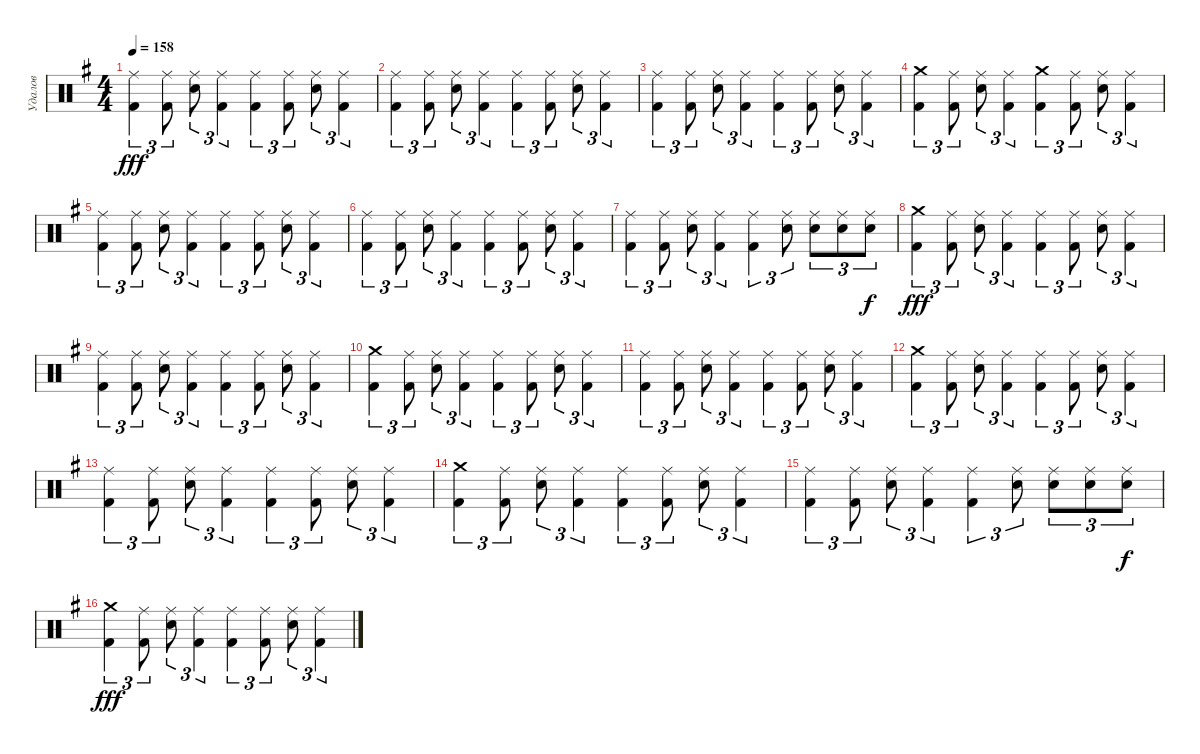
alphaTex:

\track ("Удалов" "Удалов") {instrument percussion}
\staff {score}
\articulation defaults
\ts (4 4)
\tempo 158
\clef neutral
\ks g
("Kick (hit) 2" "Ride (middle)").4{tu (3 2) dy fff} ("Kick (hit) 2" "Ride (middle)").8{tu (3 2)} ("Electric Snare (hit)" "Ride (middle)").8{tu (3 2)} ("Kick (hit) 2" "Ride (middle)").4{tu (3 2)} ("Kick (hit) 2" "Ride (middle)").4{tu (3 2)} ("Kick (hit) 2" "Ride (middle)").8{tu (3 2)} ("Electric Snare (hit)" "Ride (middle)").8{tu (3 2)} ("Kick (hit) 2" "Ride (middle)").4{tu (3 2)} |
("Kick (hit) 2" "Ride (middle)").4{tu (3 2)} ("Kick (hit) 2" "Ride (middle)").8{tu (3 2)} ("Electric Snare (hit)" "Ride (middle)").8{tu (3 2)} ("Kick (hit) 2" "Ride (middle)").4{tu (3 2)} ("Kick (hit) 2" "Ride (middle)").4{tu (3 2)} ("Kick (hit) 2" "Ride (middle)").8{tu (3 2)} ("Electric Snare (hit)" "Ride (middle)").8{tu (3 2)} ("Kick (hit) 2" "Ride (middle)").4{tu (3 2)} |
("Kick (hit) 2" "Ride (middle)").4{tu (3 2)} ("Kick (hit) 2" "Ride (middle)").8{tu (3 2)} ("Electric Snare (hit)" "Ride (middle)").8{tu (3 2)} ("Kick (hit) 2" "Ride (middle)").4{tu (3 2)} ("Kick (hit) 2" "Ride (middle)").4{tu (3 2)} ("Kick (hit) 2" "Ride (middle)").8{tu (3 2)} ("Electric Snare (hit)" "Ride (middle)").8{tu (3 2)} ("Kick (hit) 2" "Ride (middle)").4{tu (3 2)} |
("Kick (hit) 2" "Crash medium (hit)").4{tu (3 2)} ("Kick (hit) 2" "Ride (middle)").8{tu (3 2)} ("Electric Snare (hit)" "Ride (middle)").8{tu (3 2)} ("Kick (hit) 2" "Ride (middle)").4{tu (3 2)} ("Kick (hit) 2" "Crash medium (hit)").4{tu (3 2)} ("Kick (hit) 2" "Ride (middle)").8{tu (3 2)} ("Electric Snare (hit)" "Ride (middle)").8{tu (3 2)} ("Kick (hit) 2" "Ride (middle)").4{tu (3 2)} |
("Kick (hit) 2" "Ride (middle)").4{tu (3 2)} ("Kick (hit) 2" "Ride (middle)").8{tu (3 2)} ("Electric Snare (hit)" "Ride (middle)").8{tu (3 2)} ("Kick (hit) 2" "Ride (middle)").4{tu (3 2)} ("Kick (hit) 2" "Ride (middle)").4{tu (3 2)} ("Kick (hit) 2" "Ride (middle)").8{tu (3 2)} ("Electric Snare (hit)" "Ride (middle)").8{tu (3 2)} ("Kick (hit) 2" "Ride (middle)").4{tu (3 2)} |
("Kick (hit) 2" "Ride (middle)").4{tu (3 2)} ("Kick (hit) 2" "Ride (middle)").8{tu (3 2)} ("Electric Snare (hit)" "Ride (middle)").8{tu (3 2)} ("Kick (hit) 2" "Ride (middle)").4{tu (3 2)} ("Kick (hit) 2" "Ride (middle)").4{tu (3 2)} ("Kick (hit) 2" "Ride (middle)").8{tu (3 2)} ("Electric Snare (hit)" "Ride (middle)").8{tu (3 2)} ("Kick (hit) 2" "Ride (middle)").4{tu (3 2)} |
("Kick (hit) 2" "Ride (middle)").4{tu (3 2)} ("Kick (hit) 2" "Ride (middle)").8{tu (3 2)} ("Electric Snare (hit)" "Ride (middle)").8{tu (3 2)} ("Kick (hit) 2" "Ride (middle)").4{tu (3 2)} ("Kick (hit) 2" "Ride (middle)").4{tu (3 2)} ("Electric Snare (hit)" "Ride (middle)").8{tu (3 2)} ("Electric Snare (hit)" "Ride (middle)").8{tu (3 2)} ("Electric Snare (hit)" "Ride (middle)").8{tu (3 2)} ("Electric Snare (hit)" "Ride (middle)").8{tu (3 2) dy f} |
("Kick (hit) 2" "Crash medium (hit)").4{tu (3 2) dy fff} ("Kick (hit) 2" "Ride (middle)").8{tu (3 2)} ("Electric Snare (hit)" "Ride (middle)").8{tu (3 2)} ("Kick (hit) 2" "Ride (middle)").4{tu (3 2)} ("Kick (hit) 2" "Ride (middle)").4{tu (3 2)} ("Kick (hit) 2" "Ride (middle)").8{tu (3 2)} ("Electric Snare (hit)" "Ride (middle)").8{tu (3 2)} ("Kick (hit) 2" "Ride (middle)").4{tu (3 2)} |
("Kick (hit) 2" "Ride (middle)").4{tu (3 2)} ("Kick (hit) 2" "Ride (middle)").8{tu (3 2)} ("Electric Snare (hit)" "Ride (middle)").8{tu (3 2)} ("Kick (hit) 2" "Ride (middle)").4{tu (3 2)} ("Kick (hit) 2" "Ride (middle)").4{tu (3 2)} ("Kick (hit) 2" "Ride (middle)").8{tu (3 2)} ("Electric Snare (hit)" "Ride (middle)").8{tu (3 2)} ("Kick (hit) 2" "Ride (middle)").4{tu (3 2)} |
("Kick (hit) 2" "Crash medium (hit)").4{tu (3 2)} ("Kick (hit) 2" "Ride (middle)").8{tu (3 2)} ("Electric Snare (hit)" "Ride (middle)").8{tu (3 2)} ("Kick (hit) 2" "Ride (middle)").4{tu (3 2)} ("Kick (hit) 2" "Ride (middle)").4{tu (3 2)} ("Kick (hit) 2" "Ride (middle)").8{tu (3 2)} ("Electric Snare (hit)" "Ride (middle)").8{tu (3 2)} ("Kick (hit) 2" "Ride (middle)").4{tu (3 2)} |
("Kick (hit) 2" "Ride (middle)").4{tu (3 2)} ("Kick (hit) 2" "Ride (middle)").8{tu (3 2)} ("Electric Snare (hit)" "Ride (middle)").8{tu (3 2)} ("Kick (hit) 2" "Ride (middle)").4{tu (3 2)} ("Kick (hit) 2" "Ride (middle)").4{tu (3 2)} ("Kick (hit) 2" "Ride (middle)").8{tu (3 2)} ("Electric Snare (hit)" "Ride (middle)").8{tu (3 2)} ("Kick (hit) 2" "Ride (middle)").4{tu (3 2)} |
("Kick (hit) 2" "Crash medium (hit)").4{tu (3 2)} ("Kick (hit) 2" "Ride (middle)").8{tu (3 2)} ("Electric Snare (hit)" "Ride (middle)").8{tu (3 2)} ("Kick (hit) 2" "Ride (middle)").4{tu (3 2)} ("Kick (hit) 2" "Ride (middle)").4{tu (3 2)} ("Kick (hit) 2" "Ride (middle)").8{tu (3 2)} ("Electric Snare (hit)" "Ride (middle)").8{tu (3 2)} ("Kick (hit) 2" "Ride (middle)").4{tu (3 2)} |
("Kick (hit) 2" "Ride (middle)").4{tu (3 2)} ("Kick (hit) 2" "Ride (middle)").8{tu (3 2)} ("Electric Snare (hit)" "Ride (middle)").8{tu (3 2)} ("Kick (hit) 2" "Ride (middle)").4{tu (3 2)} ("Kick (hit) 2" "Ride (middle)").4{tu (3 2)} ("Kick (hit) 2" "Ride (middle)").8{tu (3 2)} ("Electric Snare (hit)" "Ride (middle)").8{tu (3 2)} ("Kick (hit) 2" "Ride (middle)").4{tu (3 2)} |
("Kick (hit) 2" "Crash medium (hit)").4{tu (3 2)} ("Kick (hit) 2" "Ride (middle)").8{tu (3 2)} ("Electric Snare (hit)" "Ride (middle)").8{tu (3 2)} ("Kick (hit) 2" "Ride (middle)").4{tu (3 2)} ("Kick (hit) 2" "Ride (middle)").4{tu (3 2)} ("Kick (hit) 2" "Ride (middle)").8{tu (3 2)} ("Electric Snare (hit)" "Ride (middle)").8{tu (3 2)} ("Kick (hit) 2" "Ride (middle)").4{tu (3 2)} |
("Kick (hit) 2" "Ride (middle)").4{tu (3 2)} ("Kick (hit) 2" "Ride (middle)").8{tu (3 2)} ("Electric Snare (hit)" "Ride (middle)").8{tu (3 2)} ("Kick (hit) 2" "Ride (middle)").4{tu (3 2)} ("Kick (hit) 2" "Ride (middle)").4{tu (3 2)} ("Electric Snare (hit)" "Ride (middle)").8{tu (3 2)} ("Electric Snare (hit)" "Ride (middle)").8{tu (3 2)} ("Electric Snare (hit)" "Ride (middle)").8{tu (3 2)} ("Electric Snare (hit)" "Ride (middle)").8{tu (3 2) dy f} |
("Kick (hit) 2" "Crash medium (hit)").4{tu (3 2) dy fff} ("Kick (hit) 2" "Ride (middle)").8{tu (3 2)} ("Electric Snare (hit)" "Ride (middle)").8{tu (3 2)} ("Kick (hit) 2" "Ride (middle)").4{tu (3 2)} ("Kick (hit) 2" "Ride (middle)").4{tu (3 2)} ("Kick (hit) 2" "Ride (middle)").8{tu (3 2)} ("Electric Snare (hit)" "Ride (middle)").8{tu (3 2)} ("Kick (hit) 2" "Ride (middle)").4{tu (3 2)}
